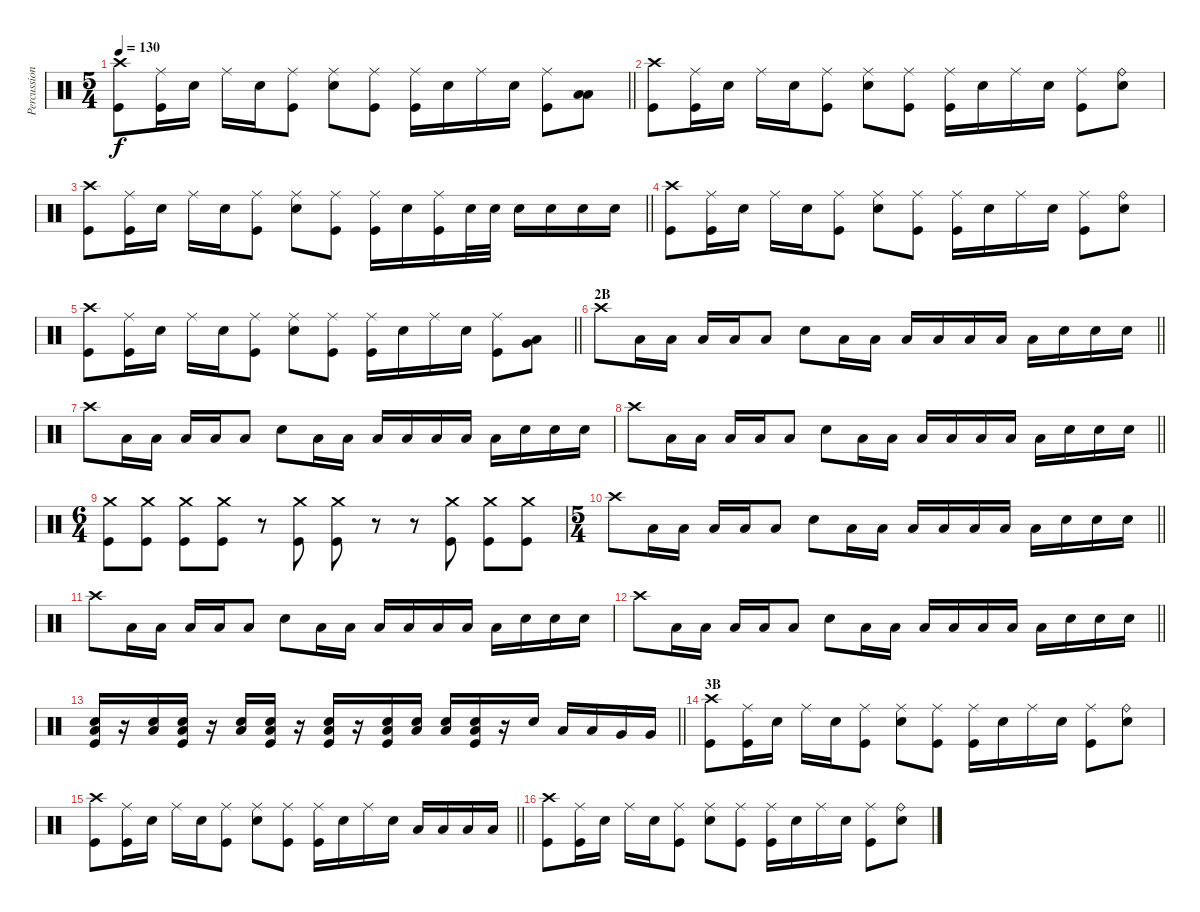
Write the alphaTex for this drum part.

\track ("Percussion" "Percussion") {instrument percussion}
\staff {score}
\articulation defaults
\ts (5 4)
\tempo 130
\clef neutral
\barLineRight lightlight
\ks c
("Crash high (hit)" "Kick (hit)").8{dy f} ("Ride (middle)" "Kick (hit)").16 "Snare (hit) 2".16 "Ride (middle)".16 "Snare (hit) 2".16 ("Ride (middle)" "Kick (hit)").8 ("Ride (middle)" "Snare (hit) 2").8 ("Ride (middle)" "Kick (hit)").8 ("Ride (middle)" "Kick (hit)").16 "Snare (hit) 2".16 "Ride (middle)".16 "Snare (hit) 2".16 ("Ride (middle)" "Kick (hit)").8 ("Low Tom (hit)" "Low Floor Tom (hit)").8 |
("Crash high (hit)" "Kick (hit)").8 ("Ride (middle)" "Kick (hit)").16 "Snare (hit) 2".16 "Ride (middle)".16 "Snare (hit) 2".16 ("Ride (middle)" "Kick (hit)").8 ("Ride (middle)" "Snare (hit) 2").8 ("Ride (middle)" "Kick (hit)").8 ("Ride (middle)" "Kick (hit)").16 "Snare (hit) 2".16 "Ride (middle)".16 "Snare (hit) 2".16 ("Ride (middle)" "Kick (hit)").8 ("Ride (bell)" "Snare (hit) 2").8 |
\barLineRight lightlight
("Crash high (hit)" "Kick (hit)").8 ("Ride (middle)" "Kick (hit)").16 "Snare (hit) 2".16 "Ride (middle)".16 "Snare (hit) 2".16 ("Ride (middle)" "Kick (hit)").8 ("Ride (middle)" "Snare (hit) 2").8 ("Ride (middle)" "Kick (hit)").8 ("Ride (middle)" "Kick (hit)").16 "Snare (hit) 2".16 ("Ride (middle)" "Kick (hit)").16 "Snare (hit) 2".32 "Snare (hit) 2".32 "Snare (hit) 2".16 "Snare (hit) 2".16 "Snare (hit) 2".16 "Snare (hit) 2".16 |
("Crash high (hit)" "Kick (hit)").8 ("Ride (middle)" "Kick (hit)").16 "Snare (hit) 2".16 "Ride (middle)".16 "Snare (hit) 2".16 ("Ride (middle)" "Kick (hit)").8 ("Ride (middle)" "Snare (hit) 2").8 ("Ride (middle)" "Kick (hit)").8 ("Ride (middle)" "Kick (hit)").16 "Snare (hit) 2".16 "Ride (middle)".16 "Snare (hit) 2".16 ("Ride (middle)" "Kick (hit)").8 ("Ride (bell)" "Snare (hit) 2").8 |
\barLineRight lightlight
("Crash high (hit)" "Kick (hit)").8 ("Ride (middle)" "Kick (hit)").16 "Snare (hit) 2".16 "Ride (middle)".16 "Snare (hit) 2".16 ("Ride (middle)" "Kick (hit)").8 ("Ride (middle)" "Snare (hit) 2").8 ("Ride (middle)" "Kick (hit)").8 ("Ride (middle)" "Kick (hit)").16 "Snare (hit) 2".16 "Ride (middle)".16 "Snare (hit) 2".16 ("Ride (middle)" "Kick (hit)").8 ("Very Low Tom (hit)" "Low Floor Tom (hit)").8 |
\section ("" "2B")
\barLineRight lightlight "Crash high (hit)".8 "Low Floor Tom (hit)".16 "Low Floor Tom (hit)".16 "Low Floor Tom (hit)".16 "Low Tom (hit)".16 "Low Floor Tom (hit)".8 "Snare (hit) 2".8 "Low Floor Tom (hit)".16 "Low Floor Tom (hit)".16 "Low Floor Tom (hit)".16 "Low Tom (hit)".16 "Low Floor Tom (hit)".16 "Low Tom (hit)".16 "Low Floor Tom (hit)".16 "Snare (hit) 2".16 "Snare (hit) 2".16 "Snare (hit) 2".16
|
"Crash high (hit)".8 "Low Floor Tom (hit)".16 "Low Floor Tom (hit)".16 "Low Floor Tom (hit)".16 "Low Tom (hit)".16 "Low Floor Tom (hit)".8 "Snare (hit) 2".8 "Low Floor Tom (hit)".16 "Low Floor Tom (hit)".16 "Low Floor Tom (hit)".16 "Low Tom (hit)".16 "Low Floor Tom (hit)".16 "Low Tom (hit)".16 "Low Floor Tom (hit)".16 "Snare (hit) 2".16 "Snare (hit) 2".16 "Snare (hit) 2".16 |
\barLineRight lightlight "Crash high (hit)".8 "Low Floor Tom (hit)".16 "Low Floor Tom (hit)".16 "Low Floor Tom (hit)".16 "Low Tom (hit)".16 "Low Floor Tom (hit)".8 "Snare (hit) 2".8 "Low Floor Tom (hit)".16 "Low Floor Tom (hit)".16 "Low Floor Tom (hit)".16 "Low Tom (hit)".16 "Low Floor Tom (hit)".16 "Low Tom (hit)".16 "Low Floor Tom (hit)".16 "Snare (hit) 2".16 "Snare (hit) 2".16 "Snare (hit) 2".16
|
\ts (6 4)
("Crash medium (hit)" "Kick (hit)").8 ("Crash medium (hit)" "Kick (hit)").8 ("Crash medium (hit)" "Kick (hit)").8 ("Crash medium (hit)" "Kick (hit)").8 r.8 ("Crash medium (hit)" "Kick (hit)").8 ("Crash medium (hit)" "Kick (hit)").8 r.8 r.8 ("Crash medium (hit)" "Kick (hit)").8 ("Crash medium (hit)" "Kick (hit)").8 ("Crash medium (hit)" "Kick (hit)").8 |
\ts (5 4)
\barLineRight lightlight "Crash high (hit)".8 "Low Floor Tom (hit)".16 "Low Floor Tom (hit)".16 "Low Floor Tom (hit)".16 "Low Tom (hit)".16 "Low Floor Tom (hit)".8 "Snare (hit) 2".8 "Low Floor Tom (hit)".16 "Low Floor Tom (hit)".16 "Low Floor Tom (hit)".16 "Low Tom (hit)".16 "Low Floor Tom (hit)".16 "Low Tom (hit)".16 "Low Floor Tom (hit)".16 "Snare (hit) 2".16 "Snare (hit) 2".16 "Snare (hit) 2".16
|
"Crash high (hit)".8 "Low Floor Tom (hit)".16 "Low Floor Tom (hit)".16 "Low Floor Tom (hit)".16 "Low Tom (hit)".16 "Low Floor Tom (hit)".8 "Snare (hit) 2".8 "Low Floor Tom (hit)".16 "Low Floor Tom (hit)".16 "Low Floor Tom (hit)".16 "Low Tom (hit)".16 "Low Floor Tom (hit)".16 "Low Tom (hit)".16 "Low Floor Tom (hit)".16 "Snare (hit) 2".16 "Snare (hit) 2".16 "Snare (hit) 2".16 |
\barLineRight lightlight "Crash high (hit)".8 "Low Floor Tom (hit)".16 "Low Floor Tom (hit)".16 "Low Floor Tom (hit)".16 "Low Tom (hit)".16 "Low Floor Tom (hit)".8 "Snare (hit) 2".8 "Low Floor Tom (hit)".16 "Low Floor Tom (hit)".16 "Low Floor Tom (hit)".16 "Low Tom (hit)".16 "Low Floor Tom (hit)".16 "Low Tom (hit)".16 "Low Floor Tom (hit)".16 "Snare (hit) 2".16 "Snare (hit) 2".16 "Snare (hit) 2".16
|
\barLineRight lightlight
("Low Floor Tom (hit)" "Snare (hit) 2" "Kick (hit)").16 r.16 ("Low Floor Tom (hit)" "Snare (hit) 2").16 ("Low Floor Tom (hit)" "Snare (hit) 2" "Kick (hit)").16 r.16 ("Low Floor Tom (hit)" "Snare (hit) 2").16 ("Low Floor Tom (hit)" "Snare (hit) 2" "Kick (hit)").16 r.16 ("Low Floor Tom (hit)" "Snare (hit) 2" "Kick (hit)").16 r.16 ("Low Floor Tom (hit)" "Snare (hit) 2" "Kick (hit)").16 ("Low Floor Tom (hit)" "Snare (hit) 2").16 ("Low Floor Tom (hit)" "Snare (hit) 2").16 ("Low Floor Tom (hit)" "Snare (hit) 2" "Kick (hit)").16 r.16 "Snare (hit) 2".16 "Low Tom (hit)".16 "Low Tom (hit)".16 "Very Low Tom (hit)".16 "Very Low Tom (hit)".16 |
\section ("" "3B")
("Crash high (hit)" "Kick (hit)").8 ("Ride (middle)" "Kick (hit)").16 "Snare (hit) 2".16 "Ride (middle)".16 "Snare (hit) 2".16 ("Ride (middle)" "Kick (hit)").8 ("Ride (middle)" "Snare (hit) 2").8 ("Ride (middle)" "Kick (hit)").8 ("Ride (middle)" "Kick (hit)").16 "Snare (hit) 2".16 "Ride (middle)".16 "Snare (hit) 2".16 ("Ride (middle)" "Kick (hit)").8 ("Ride (bell)" "Snare (hit) 2").8 |
\barLineRight lightlight
("Crash high (hit)" "Kick (hit)").8 ("Ride (middle)" "Kick (hit)").16 "Snare (hit) 2".16 "Ride (middle)".16 "Snare (hit) 2".16 ("Ride (middle)" "Kick (hit)").8 ("Ride (middle)" "Snare (hit) 2").8 ("Ride (middle)" "Kick (hit)").8 ("Ride (middle)" "Kick (hit)").16 "Snare (hit) 2".16 "Ride (middle)".16 "Snare (hit) 2".16 "Low Tom (hit)".16 "Low Tom (hit)".16 "Low Floor Tom (hit)".16 "Low Floor Tom (hit)".16 |
("Crash high (hit)" "Kick (hit)").8 ("Ride (middle)" "Kick (hit)").16 "Snare (hit) 2".16 "Ride (middle)".16 "Snare (hit) 2".16 ("Ride (middle)" "Kick (hit)").8 ("Ride (middle)" "Snare (hit) 2").8 ("Ride (middle)" "Kick (hit)").8 ("Ride (middle)" "Kick (hit)").16 "Snare (hit) 2".16 "Ride (middle)".16 "Snare (hit) 2".16 ("Ride (middle)" "Kick (hit)").8 ("Ride (bell)" "Snare (hit) 2").8
